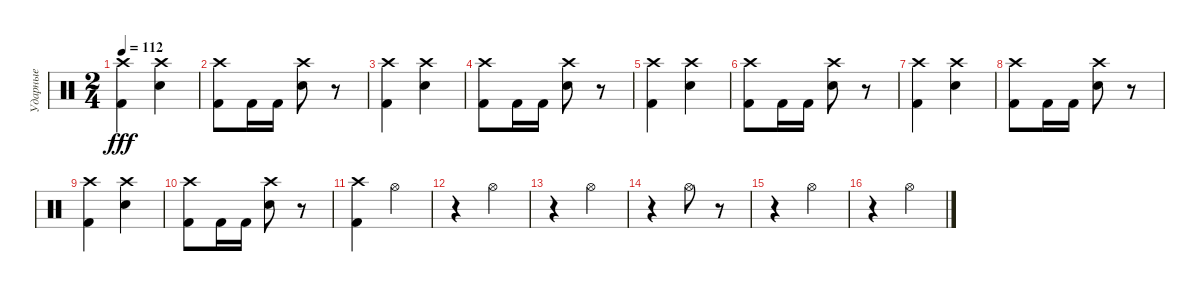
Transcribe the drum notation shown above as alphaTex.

\track ("Ударные" "Ударные") {instrument percussion}
\staff {score}
\articulation defaults
\ts (2 4)
\tempo 112
\clef neutral
\ks c
("Kick (hit) 2" "Crash high (hit)").4{dy fff} ("Electric Snare (hit)" "Crash high (hit)").4 |
("Crash high (hit)" "Kick (hit) 2").8 "Kick (hit) 2".16 "Kick (hit) 2".16 ("Electric Snare (hit)" "Crash high (hit)").8 r.8 |
("Kick (hit) 2" "Crash high (hit)").4 ("Electric Snare (hit)" "Crash high (hit)").4 |
("Crash high (hit)" "Kick (hit) 2").8 "Kick (hit) 2".16 "Kick (hit) 2".16 ("Electric Snare (hit)" "Crash high (hit)").8 r.8 |
("Kick (hit) 2" "Crash high (hit)").4 ("Electric Snare (hit)" "Crash high (hit)").4 |
("Crash high (hit)" "Kick (hit) 2").8 "Kick (hit) 2".16 "Kick (hit) 2".16 ("Electric Snare (hit)" "Crash high (hit)").8 r.8 |
("Kick (hit) 2" "Crash high (hit)").4 ("Electric Snare (hit)" "Crash high (hit)").4 |
("Kick (hit) 2" "Crash high (hit)").8 "Kick (hit) 2".16 "Kick (hit) 2".16 ("Electric Snare (hit)" "Crash high (hit)").8 r.8 |
("Kick (hit) 2" "Crash high (hit)").4 ("Electric Snare (hit)" "Crash high (hit)").4 |
("Crash high (hit)" "Kick (hit) 2").8 "Kick (hit) 2".16 "Kick (hit) 2".16 ("Electric Snare (hit)" "Crash high (hit)").8 r.8 |
("Kick (hit) 2" "Crash high (hit)").4 "Hi-Hat (open)".4 |
r.4 "Hi-Hat (open)".4 |
r.4 "Hi-Hat (open)".4 |
r.4 "Hi-Hat (open)".8 r.8 |
r.4 "Hi-Hat (open)".4 |
r.4 "Hi-Hat (open)".4
